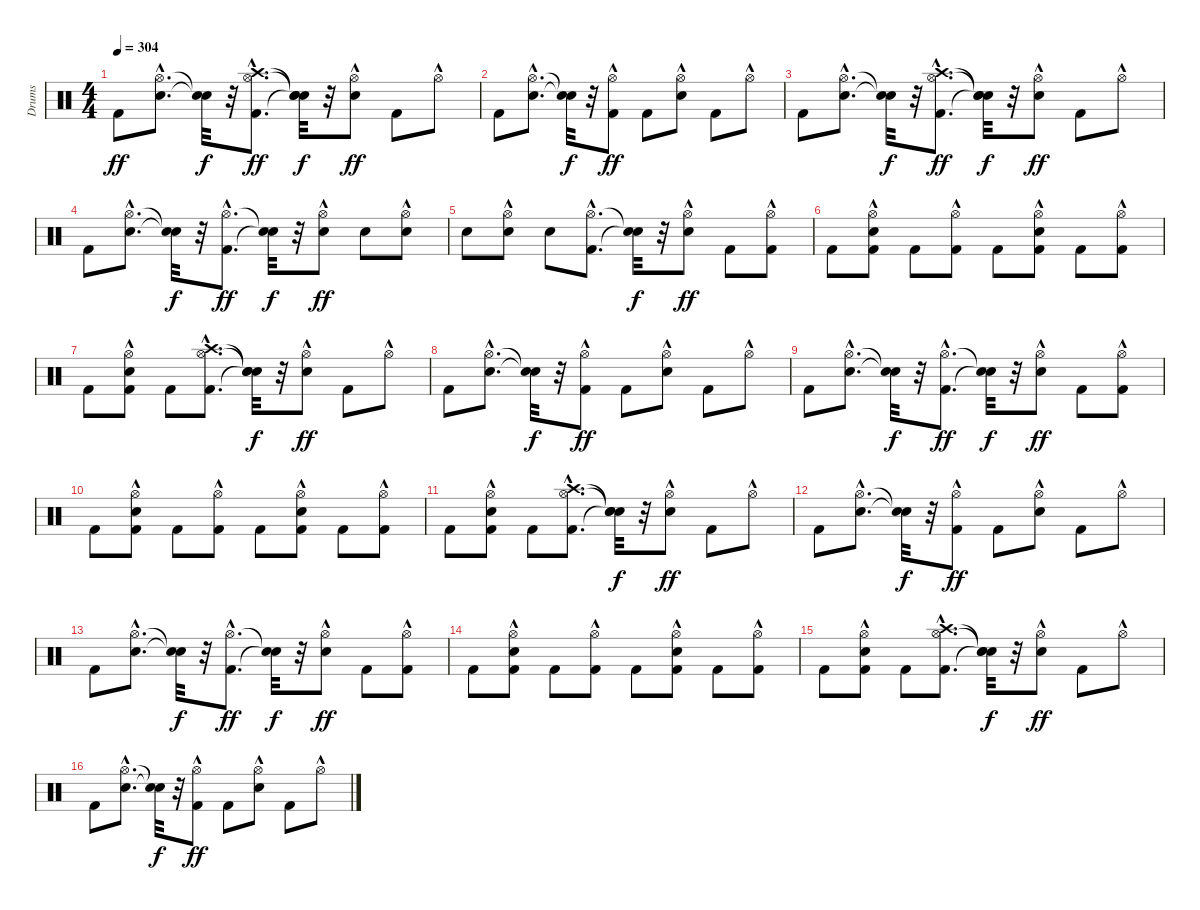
\track ("Drums" "Drums") {instrument percussion}
\staff {score}
\articulation defaults
\ts (4 4)
\tempo 304
\clef neutral
\ks c "Kick (hit) 2".8{dy ff}
("Snare (hit) 2"{hac} "Hi-Hat (open)"{hac}).8{d} ("Snare (hit)"{t} "Snare (hit)"{t}).32{dy f} r.32 ("Kick (hit) 2"{hac} "Hi-Hat (open)"{hac} "Crash high (hit)"{hac}).8{d dy ff} ("Snare (hit)"{t} "Snare (hit)"{t} "Snare (hit)"{t}).32{dy f} r.32 ("Snare (hit) 2" "Hi-Hat (open)"{hac}).8{dy ff} "Kick (hit) 2".8 "Hi-Hat (open)"{hac}.8 |
"Kick (hit) 2".8 ("Snare (hit) 2"{hac} "Hi-Hat (open)"{hac}).8{d} ("Snare (hit)"{t} "Snare (hit)"{t}).32{dy f} r.32 ("Kick (hit) 2" "Hi-Hat (open)"{hac}).8{dy ff} "Kick (hit) 2".8 ("Snare (hit) 2" "Hi-Hat (open)"{hac}).8 "Kick (hit) 2".8 "Hi-Hat (open)"{hac}.8 |
"Kick (hit) 2".8 ("Snare (hit) 2"{hac} "Hi-Hat (open)"{hac}).8{d} ("Snare (hit)"{t} "Snare (hit)"{t}).32{dy f} r.32 ("Kick (hit) 2"{hac} "Hi-Hat (open)"{hac} "Crash high (hit)"{hac}).8{d dy ff} ("Snare (hit)"{t} "Snare (hit)"{t} "Snare (hit)"{t}).32{dy f} r.32 ("Snare (hit) 2" "Hi-Hat (open)"{hac}).8{dy ff} "Kick (hit) 2".8 "Hi-Hat (open)"{hac}.8 |
"Kick (hit) 2".8 ("Snare (hit) 2"{hac} "Hi-Hat (open)"{hac}).8{d} ("Snare (hit)"{t} "Snare (hit)"{t}).32{dy f} r.32 ("Kick (hit) 2"{hac} "Hi-Hat (open)"{hac}).8{d dy ff} ("Snare (hit)"{t} "Snare (hit)"{t}).32{dy f} r.32 ("Snare (hit) 2" "Hi-Hat (open)"{hac}).8{dy ff} "Snare (hit) 2".8 ("Snare (hit) 2" "Hi-Hat (open)"{hac}).8 |
"Snare (hit) 2".8 ("Snare (hit) 2" "Hi-Hat (open)"{hac}).8 "Snare (hit) 2".8 ("Kick (hit) 2"{hac} "Hi-Hat (open)"{hac}).8{d} ("Snare (hit)"{t} "Snare (hit)"{t}).32{dy f} r.32 ("Snare (hit) 2" "Hi-Hat (open)"{hac}).8{dy ff} "Kick (hit) 2".8 ("Kick (hit) 2" "Hi-Hat (open)"{hac}).8 |
"Kick (hit) 2".8 ("Kick (hit) 2" "Snare (hit) 2"{hac} "Hi-Hat (open)"{hac}).8 "Kick (hit) 2".8 ("Kick (hit) 2" "Hi-Hat (open)"{hac}).8 "Kick (hit) 2".8 ("Kick (hit) 2" "Snare (hit) 2"{hac} "Hi-Hat (open)"{hac}).8 "Kick (hit) 2".8 ("Kick (hit) 2" "Hi-Hat (open)"{hac}).8 |
"Kick (hit) 2".8 ("Kick (hit) 2" "Snare (hit) 2"{hac} "Hi-Hat (open)"{hac}).8 "Kick (hit) 2".8 ("Kick (hit) 2"{hac} "Hi-Hat (open)"{hac} "Crash high (hit)"{hac}).8{d} ("Snare (hit)"{t} "Snare (hit)"{t} "Snare (hit)"{t}).32{dy f} r.32 ("Snare (hit) 2" "Hi-Hat (open)"{hac}).8{dy ff} "Kick (hit) 2".8 "Hi-Hat (open)"{hac}.8 |
"Kick (hit) 2".8 ("Snare (hit) 2"{hac} "Hi-Hat (open)"{hac}).8{d} ("Snare (hit)"{t} "Snare (hit)"{t}).32{dy f} r.32 ("Kick (hit) 2" "Hi-Hat (open)"{hac}).8{dy ff} "Kick (hit) 2".8 ("Snare (hit) 2" "Hi-Hat (open)"{hac}).8 "Kick (hit) 2".8 "Hi-Hat (open)"{hac}.8 |
"Kick (hit) 2".8 ("Snare (hit) 2"{hac} "Hi-Hat (open)"{hac}).8{d} ("Snare (hit)"{t} "Snare (hit)"{t}).32{dy f} r.32 ("Kick (hit) 2"{hac} "Hi-Hat (open)"{hac}).8{d dy ff} ("Snare (hit)"{t} "Snare (hit)"{t}).32{dy f} r.32 ("Snare (hit) 2" "Hi-Hat (open)"{hac}).8{dy ff} "Kick (hit) 2".8 ("Kick (hit) 2" "Hi-Hat (open)"{hac}).8 |
"Kick (hit) 2".8 ("Kick (hit) 2" "Snare (hit) 2"{hac} "Hi-Hat (open)"{hac}).8 "Kick (hit) 2".8 ("Kick (hit) 2" "Hi-Hat (open)"{hac}).8 "Kick (hit) 2".8 ("Kick (hit) 2" "Snare (hit) 2"{hac} "Hi-Hat (open)"{hac}).8 "Kick (hit) 2".8 ("Kick (hit) 2" "Hi-Hat (open)"{hac}).8 |
"Kick (hit) 2".8 ("Kick (hit) 2" "Snare (hit) 2"{hac} "Hi-Hat (open)"{hac}).8 "Kick (hit) 2".8 ("Kick (hit) 2"{hac} "Hi-Hat (open)"{hac} "Crash high (hit)"{hac}).8{d} ("Snare (hit)"{t} "Snare (hit)"{t} "Snare (hit)"{t}).32{dy f} r.32 ("Snare (hit) 2" "Hi-Hat (open)"{hac}).8{dy ff} "Kick (hit) 2".8 "Hi-Hat (open)"{hac}.8 |
"Kick (hit) 2".8 ("Snare (hit) 2"{hac} "Hi-Hat (open)"{hac}).8{d} ("Snare (hit)"{t} "Snare (hit)"{t}).32{dy f} r.32 ("Kick (hit) 2" "Hi-Hat (open)"{hac}).8{dy ff} "Kick (hit) 2".8 ("Snare (hit) 2" "Hi-Hat (open)"{hac}).8 "Kick (hit) 2".8 "Hi-Hat (open)"{hac}.8 |
"Kick (hit) 2".8 ("Snare (hit) 2"{hac} "Hi-Hat (open)"{hac}).8{d} ("Snare (hit)"{t} "Snare (hit)"{t}).32{dy f} r.32 ("Kick (hit) 2"{hac} "Hi-Hat (open)"{hac}).8{d dy ff} ("Snare (hit)"{t} "Snare (hit)"{t}).32{dy f} r.32 ("Snare (hit) 2" "Hi-Hat (open)"{hac}).8{dy ff} "Kick (hit) 2".8 ("Kick (hit) 2" "Hi-Hat (open)"{hac}).8 |
"Kick (hit) 2".8 ("Kick (hit) 2" "Snare (hit) 2"{hac} "Hi-Hat (open)"{hac}).8 "Kick (hit) 2".8 ("Kick (hit) 2" "Hi-Hat (open)"{hac}).8 "Kick (hit) 2".8 ("Kick (hit) 2" "Snare (hit) 2"{hac} "Hi-Hat (open)"{hac}).8 "Kick (hit) 2".8 ("Kick (hit) 2" "Hi-Hat (open)"{hac}).8 |
"Kick (hit) 2".8 ("Kick (hit) 2" "Snare (hit) 2"{hac} "Hi-Hat (open)"{hac}).8 "Kick (hit) 2".8 ("Kick (hit) 2"{hac} "Hi-Hat (open)"{hac} "Crash high (hit)"{hac}).8{d} ("Snare (hit)"{t} "Snare (hit)"{t} "Snare (hit)"{t}).32{dy f} r.32 ("Snare (hit) 2" "Hi-Hat (open)"{hac}).8{dy ff} "Kick (hit) 2".8 "Hi-Hat (open)"{hac}.8 |
"Kick (hit) 2".8 ("Snare (hit) 2"{hac} "Hi-Hat (open)"{hac}).8{d} ("Snare (hit)"{t} "Snare (hit)"{t}).32{dy f} r.32 ("Kick (hit) 2" "Hi-Hat (open)"{hac}).8{dy ff} "Kick (hit) 2".8 ("Snare (hit) 2" "Hi-Hat (open)"{hac}).8 "Kick (hit) 2".8 "Hi-Hat (open)"{hac}.8
